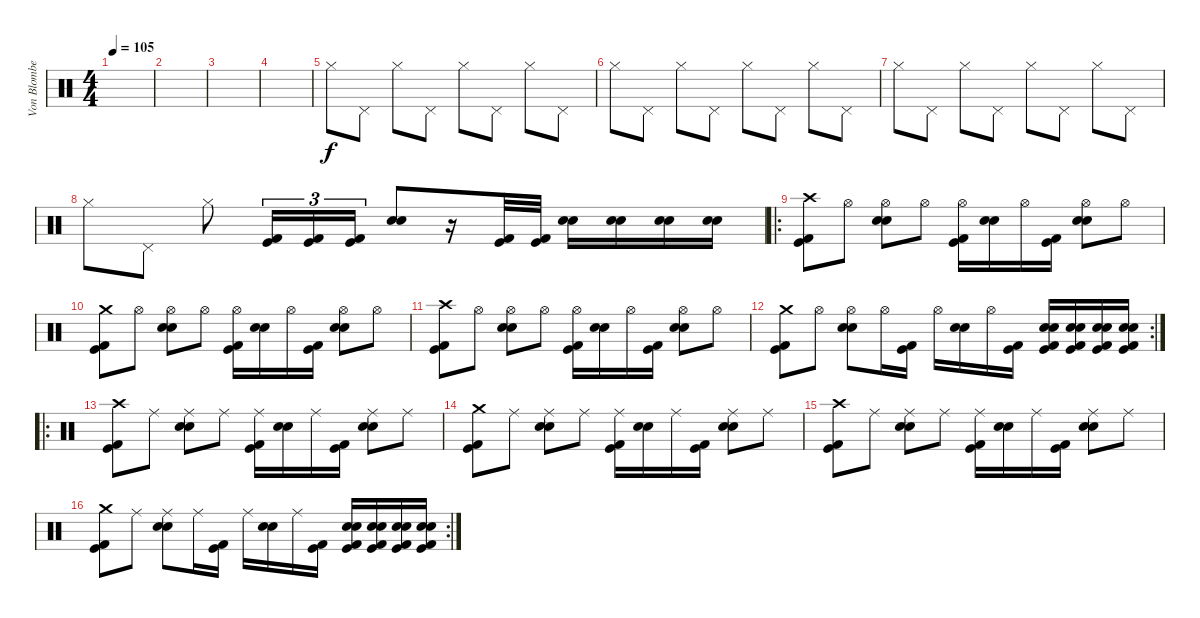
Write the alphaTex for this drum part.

\track ("Von Blomberg" "Von Blombe") {instrument percussion}
\staff {score}
\articulation defaults
\ts (4 4)
\tempo 105
\clef neutral
\ks c
|
|
|
|
"Hi-Hat (closed)".8 "Pedal Hi-Hat (hit)".8 "Hi-Hat (closed)".8 "Pedal Hi-Hat (hit)".8 "Hi-Hat (closed)".8 "Pedal Hi-Hat (hit)".8 "Hi-Hat (closed)".8 "Pedal Hi-Hat (hit)".8 |
"Hi-Hat (closed)".8 "Pedal Hi-Hat (hit)".8 "Hi-Hat (closed)".8 "Pedal Hi-Hat (hit)".8 "Hi-Hat (closed)".8 "Pedal Hi-Hat (hit)".8 "Hi-Hat (closed)".8 "Pedal Hi-Hat (hit)".8 |
"Hi-Hat (closed)".8 "Pedal Hi-Hat (hit)".8 "Hi-Hat (closed)".8 "Pedal Hi-Hat (hit)".8 "Hi-Hat (closed)".8 "Pedal Hi-Hat (hit)".8 "Hi-Hat (closed)".8 "Pedal Hi-Hat (hit)".8 |
"Hi-Hat (closed)".8 "Pedal Hi-Hat (hit)".8 "Hi-Hat (closed)".8 ("Kick (hit)" "Kick (hit) 2").16{tu (3 2)} ("Kick (hit)" "Kick (hit) 2").16{tu (3 2)} ("Kick (hit)" "Kick (hit) 2").16{tu (3 2)} ("Electric Snare (hit)" "Snare (hit) 2").8 r.16 ("Kick (hit)" "Kick (hit) 2").32 ("Kick (hit)" "Kick (hit) 2").32 ("Electric Snare (hit)" "Snare (hit) 2").16 ("Electric Snare (hit)" "Snare (hit) 2").16 ("Electric Snare (hit)" "Snare (hit) 2").16 ("Electric Snare (hit)" "Snare (hit) 2").16 |
\ro
("Crash high (hit)" "Kick (hit)" "Kick (hit) 2").8 "Hi-Hat (open)".8 ("Hi-Hat (open)" "Electric Snare (hit)" "Snare (hit) 2").8 "Hi-Hat (open)".8 ("Hi-Hat (open)" "Kick (hit)" "Kick (hit) 2").16 ("Electric Snare (hit)" "Snare (hit) 2").16 "Hi-Hat (open)".16 ("Kick (hit) 2" "Kick (hit)").16 ("Hi-Hat (open)" "Snare (hit) 2" "Electric Snare (hit)").8 "Hi-Hat (open)".8 |
("Crash medium (hit)" "Kick (hit)" "Kick (hit) 2").8 "Hi-Hat (open)".8 ("Hi-Hat (open)" "Electric Snare (hit)" "Snare (hit) 2").8 "Hi-Hat (open)".8 ("Hi-Hat (open)" "Kick (hit)" "Kick (hit) 2").16 ("Electric Snare (hit)" "Snare (hit) 2").16 "Hi-Hat (open)".16 ("Kick (hit) 2" "Kick (hit)").16 ("Hi-Hat (open)" "Snare (hit) 2" "Electric Snare (hit)").8 "Hi-Hat (open)".8 |
("Crash high (hit)" "Kick (hit)" "Kick (hit) 2").8 "Hi-Hat (open)".8 ("Hi-Hat (open)" "Electric Snare (hit)" "Snare (hit) 2").8 "Hi-Hat (open)".8 ("Hi-Hat (open)" "Kick (hit)" "Kick (hit) 2").16 ("Electric Snare (hit)" "Snare (hit) 2").16 "Hi-Hat (open)".16 ("Kick (hit) 2" "Kick (hit)").16 ("Hi-Hat (open)" "Snare (hit) 2" "Electric Snare (hit)").8 "Hi-Hat (open)".8 |
\rc 2
("Crash medium (hit)" "Kick (hit)" "Kick (hit) 2").8 "Hi-Hat (open)".8 ("Hi-Hat (open)" "Electric Snare (hit)" "Snare (hit) 2").8 "Hi-Hat (open)".16 ("Kick (hit)" "Kick (hit) 2").16 "Hi-Hat (open)".16 ("Snare (hit) 2" "Electric Snare (hit)").16 "Hi-Hat (open)".16 ("Kick (hit)" "Kick (hit) 2").16 ("Electric Snare (hit)" "Snare (hit) 2" "Kick (hit)" "Kick (hit) 2").16 ("Electric Snare (hit)" "Snare (hit) 2" "Kick (hit)" "Kick (hit) 2").16 ("Electric Snare (hit)" "Snare (hit) 2" "Kick (hit)" "Kick (hit) 2").16 ("Electric Snare (hit)" "Snare (hit) 2" "Kick (hit)" "Kick (hit) 2").16 |
\ro
("Crash high (hit)" "Kick (hit)" "Kick (hit) 2").8 "Ride (middle)".8 ("Ride (middle)" "Electric Snare (hit)" "Snare (hit) 2").8 "Ride (middle)".8 ("Ride (middle)" "Kick (hit)" "Kick (hit) 2").16 ("Electric Snare (hit)" "Snare (hit) 2").16 "Ride (middle)".16 ("Kick (hit) 2" "Kick (hit)").16 ("Ride (middle)" "Snare (hit) 2" "Electric Snare (hit)").8 "Ride (middle)".8 |
("Crash medium (hit)" "Kick (hit)" "Kick (hit) 2").8 "Ride (middle)".8 ("Ride (middle)" "Electric Snare (hit)" "Snare (hit) 2").8 "Ride (middle)".8 ("Ride (middle)" "Kick (hit)" "Kick (hit) 2").16 ("Electric Snare (hit)" "Snare (hit) 2").16 "Ride (middle)".16 ("Kick (hit) 2" "Kick (hit)").16 ("Ride (middle)" "Snare (hit) 2" "Electric Snare (hit)").8 "Ride (middle)".8 |
("Crash high (hit)" "Kick (hit)" "Kick (hit) 2").8 "Ride (middle)".8 ("Ride (middle)" "Electric Snare (hit)" "Snare (hit) 2").8 "Ride (middle)".8 ("Ride (middle)" "Kick (hit)" "Kick (hit) 2").16 ("Electric Snare (hit)" "Snare (hit) 2").16 "Ride (middle)".16 ("Kick (hit) 2" "Kick (hit)").16 ("Ride (middle)" "Snare (hit) 2" "Electric Snare (hit)").8 "Ride (middle)".8 |
\rc 2
("Crash medium (hit)" "Kick (hit)" "Kick (hit) 2").8 "Ride (middle)".8 ("Ride (middle)" "Electric Snare (hit)" "Snare (hit) 2").8 "Ride (middle)".16 ("Kick (hit)" "Kick (hit) 2").16 "Ride (middle)".16 ("Snare (hit) 2" "Electric Snare (hit)").16 "Ride (middle)".16 ("Kick (hit)" "Kick (hit) 2").16 ("Electric Snare (hit)" "Snare (hit) 2" "Kick (hit)" "Kick (hit) 2").16 ("Electric Snare (hit)" "Snare (hit) 2" "Kick (hit)" "Kick (hit) 2").16 ("Electric Snare (hit)" "Snare (hit) 2" "Kick (hit)" "Kick (hit) 2").16 ("Electric Snare (hit)" "Snare (hit) 2" "Kick (hit)" "Kick (hit) 2").16
